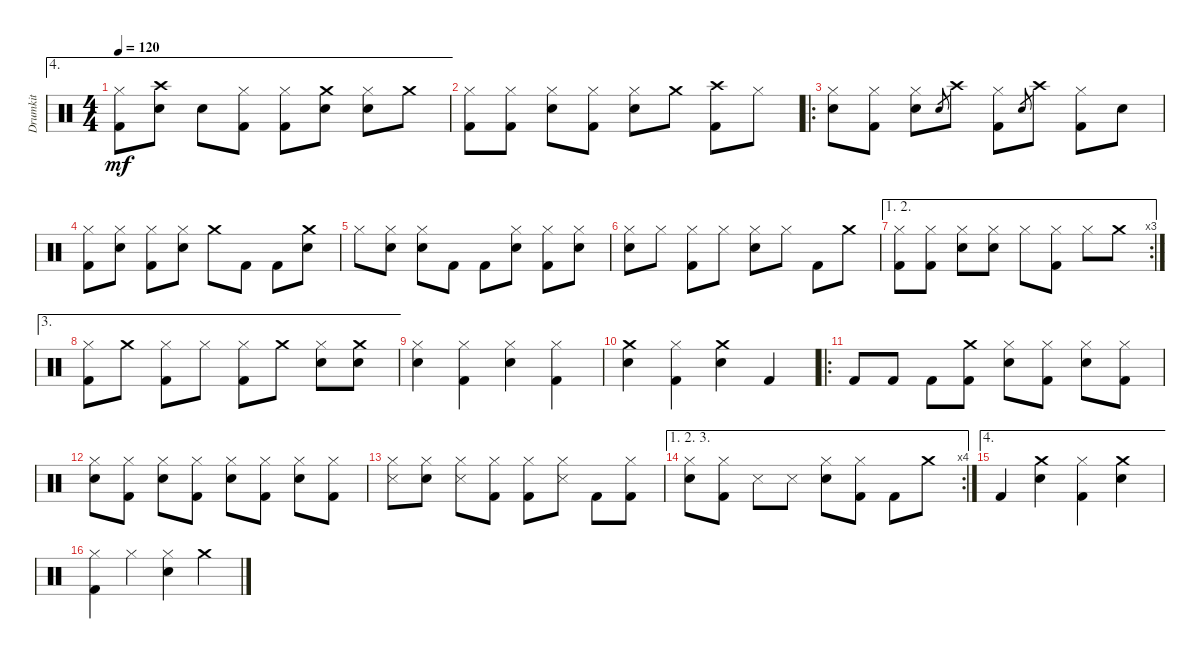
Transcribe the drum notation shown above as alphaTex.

\track ("Drumkit" "Drumkit") {instrument percussion}
\staff {score}
\articulation defaults
\ae 4
\ts (4 4)
\tempo 120
\clef neutral
\ks c
("Kick (hit) 2" "Hi-Hat (closed)").8{dy mf} ("Snare (hit) 2" "Crash high (hit)").8 "Snare (hit) 2".8 ("Kick (hit) 2" "Hi-Hat (closed)").8 ("Kick (hit) 2" "Hi-Hat (closed)").8 ("Snare (hit) 2" "Crash medium (hit)").8 ("Snare (hit) 2" "Hi-Hat (closed)").8 "Crash medium (hit)".8 |
("Kick (hit) 2" "Hi-Hat (closed)").8 ("Kick (hit) 2" "Hi-Hat (closed)").8 ("Hi-Hat (closed)" "Snare (hit) 2").8 ("Hi-Hat (closed)" "Kick (hit) 2").8 ("Hi-Hat (closed)" "Snare (hit) 2").8 "Crash medium (hit)".8 ("Kick (hit) 2" "Crash high (hit)").8 "Hi-Hat (closed)".8 |
\ro
("Hi-Hat (closed)" "Snare (hit) 2").8 ("Hi-Hat (closed)" "Kick (hit) 2").8 ("Hi-Hat (closed)" "Snare (hit) 2").8 "Snare (hit)".8{gr} "Crash high (hit)".8 ("Hi-Hat (closed)" "Kick (hit) 2").8 "Snare (hit)".8{gr} "Crash high (hit)".8 ("Kick (hit) 2" "Hi-Hat (closed)").8 "Snare (hit) 2".8 |
("Hi-Hat (closed)" "Kick (hit) 2").8 ("Hi-Hat (closed)" "Snare (hit) 2").8 ("Hi-Hat (closed)" "Kick (hit) 2").8 ("Hi-Hat (closed)" "Snare (hit) 2").8 "Crash medium (hit)".8 "Kick (hit) 2".8 "Kick (hit) 2".8 ("Snare (hit) 2" "Crash medium (hit)").8 |
"Hi-Hat (closed)".8 ("Hi-Hat (closed)" "Snare (hit) 2").8 ("Hi-Hat (closed)" "Snare (hit) 2").8 "Kick (hit) 2".8 "Kick (hit) 2".8 ("Hi-Hat (closed)" "Snare (hit) 2").8 ("Hi-Hat (closed)" "Kick (hit) 2").8 ("Hi-Hat (closed)" "Snare (hit) 2").8 |
("Snare (hit) 2" "Hi-Hat (closed)").8 "Hi-Hat (closed)".8 ("Hi-Hat (closed)" "Kick (hit) 2").8 "Hi-Hat (closed)".8 ("Hi-Hat (closed)" "Snare (hit) 2").8 "Hi-Hat (closed)".8 "Kick (hit) 2".8 "Crash medium (hit)".8 |
\ae (1 2)
\rc 3
("Hi-Hat (closed)" "Kick (hit) 2").8 ("Hi-Hat (closed)" "Kick (hit) 2").8 ("Hi-Hat (closed)" "Snare (hit) 2").8 ("Hi-Hat (closed)" "Snare (hit) 2").8 "Hi-Hat (closed)".8 ("Hi-Hat (closed)" "Kick (hit) 2").8 "Hi-Hat (closed)".8 "Crash medium (hit)".8 |
\ae 3
("Hi-Hat (closed)" "Kick (hit) 2").8 "Crash medium (hit)".8 ("Hi-Hat (closed)" "Kick (hit) 2").8 "Hi-Hat (closed)".8 ("Hi-Hat (closed)" "Kick (hit) 2").8 "Crash medium (hit)".8 ("Hi-Hat (closed)" "Snare (hit) 2").8 ("Crash medium (hit)" "Snare (hit) 2").8 |
("Hi-Hat (closed)" "Snare (hit) 2").4 ("Kick (hit) 2" "Hi-Hat (closed)").4 ("Hi-Hat (closed)" "Snare (hit) 2").4 ("Hi-Hat (closed)" "Kick (hit) 2").4 |
("Snare (hit) 2" "Crash medium (hit)").4 ("Kick (hit) 2" "Hi-Hat (closed)").4 ("Crash medium (hit)" "Snare (hit) 2").4 "Kick (hit) 2".4 |
\ro "Kick (hit) 2".8 "Kick (hit) 2".8 "Kick (hit) 2".8
("Crash medium (hit)" "Kick (hit) 2").8 ("Snare (hit) 2" "Hi-Hat (closed)").8 ("Kick (hit) 2" "Hi-Hat (closed)").8 ("Hi-Hat (closed)" "Snare (hit) 2").8 ("Hi-Hat (closed)" "Kick (hit) 2").8 |
("Hi-Hat (closed)" "Snare (hit) 2").8 ("Hi-Hat (closed)" "Kick (hit) 2").8 ("Hi-Hat (closed)" "Snare (hit) 2").8 ("Hi-Hat (closed)" "Kick (hit) 2").8 ("Hi-Hat (closed)" "Snare (hit) 2").8 ("Hi-Hat (closed)" "Kick (hit) 2").8 ("Hi-Hat (closed)" "Snare (hit) 2").8 ("Hi-Hat (closed)" "Kick (hit) 2").8 |
("Snare (side stick) 3" "Hi-Hat (closed)").8 ("Snare (hit) 2" "Hi-Hat (closed)").8 ("Snare (side stick) 3" "Hi-Hat (closed)").8 ("Kick (hit) 2" "Hi-Hat (closed)").8 ("Hi-Hat (closed)" "Kick (hit) 2").8 ("Snare (side stick) 3" "Hi-Hat (closed)").8 "Kick (hit) 2".8 ("Kick (hit) 2" "Hi-Hat (closed)").8 |
\ae (1 2 3)
\rc 4
("Snare (hit) 2" "Hi-Hat (closed)").8 ("Kick (hit) 2" "Hi-Hat (closed)").8 "Snare (side stick) 3".8 "Snare (side stick) 3".8 ("Hi-Hat (closed)" "Snare (hit) 2").8 ("Hi-Hat (closed)" "Kick (hit) 2").8 "Kick (hit) 2".8 "Crash medium (hit)".8 |
\ae 4 "Kick (hit) 2".4
("Crash medium (hit)" "Snare (hit) 2").4 ("Kick (hit) 2" "Hi-Hat (closed)").4 ("Crash medium (hit)" "Snare (hit) 2").4 |
("Hi-Hat (closed)" "Kick (hit) 2").4 "Hi-Hat (closed)".4 ("Snare (hit) 2" "Hi-Hat (closed)").4 "Crash medium (hit)".4
